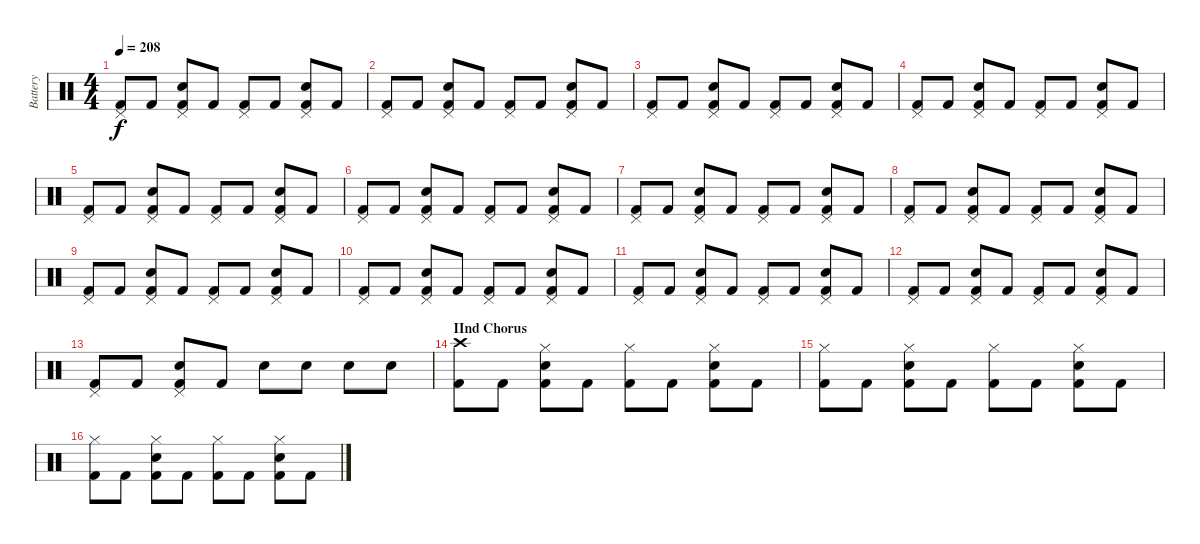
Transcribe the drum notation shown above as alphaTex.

\track ("Battery" "Battery") {instrument percussion}
\staff {score}
\articulation defaults
\ts (4 4)
\tempo 208
\clef neutral
\ks c
("Pedal Hi-Hat (hit)" "Kick (hit) 2").8{dy f} "Kick (hit) 2".8 ("Pedal Hi-Hat (hit)" "Electric Snare (hit)" "Kick (hit) 2").8 "Kick (hit) 2".8 ("Pedal Hi-Hat (hit)" "Kick (hit) 2").8 "Kick (hit) 2".8 ("Pedal Hi-Hat (hit)" "Electric Snare (hit)" "Kick (hit) 2").8 "Kick (hit) 2".8 |
("Pedal Hi-Hat (hit)" "Kick (hit) 2").8 "Kick (hit) 2".8 ("Pedal Hi-Hat (hit)" "Electric Snare (hit)" "Kick (hit) 2").8 "Kick (hit) 2".8 ("Pedal Hi-Hat (hit)" "Kick (hit) 2").8 "Kick (hit) 2".8 ("Pedal Hi-Hat (hit)" "Electric Snare (hit)" "Kick (hit) 2").8 "Kick (hit) 2".8 |
("Pedal Hi-Hat (hit)" "Kick (hit) 2").8 "Kick (hit) 2".8 ("Pedal Hi-Hat (hit)" "Electric Snare (hit)" "Kick (hit) 2").8 "Kick (hit) 2".8 ("Pedal Hi-Hat (hit)" "Kick (hit) 2").8 "Kick (hit) 2".8 ("Pedal Hi-Hat (hit)" "Electric Snare (hit)" "Kick (hit) 2").8 "Kick (hit) 2".8 |
("Pedal Hi-Hat (hit)" "Kick (hit) 2").8 "Kick (hit) 2".8 ("Pedal Hi-Hat (hit)" "Electric Snare (hit)" "Kick (hit) 2").8 "Kick (hit) 2".8 ("Pedal Hi-Hat (hit)" "Kick (hit) 2").8 "Kick (hit) 2".8 ("Pedal Hi-Hat (hit)" "Electric Snare (hit)" "Kick (hit) 2").8 "Kick (hit) 2".8 |
("Pedal Hi-Hat (hit)" "Kick (hit) 2").8 "Kick (hit) 2".8 ("Pedal Hi-Hat (hit)" "Electric Snare (hit)" "Kick (hit) 2").8 "Kick (hit) 2".8 ("Pedal Hi-Hat (hit)" "Kick (hit) 2").8 "Kick (hit) 2".8 ("Pedal Hi-Hat (hit)" "Electric Snare (hit)" "Kick (hit) 2").8 "Kick (hit) 2".8 |
("Pedal Hi-Hat (hit)" "Kick (hit) 2").8 "Kick (hit) 2".8 ("Pedal Hi-Hat (hit)" "Electric Snare (hit)" "Kick (hit) 2").8 "Kick (hit) 2".8 ("Pedal Hi-Hat (hit)" "Kick (hit) 2").8 "Kick (hit) 2".8 ("Pedal Hi-Hat (hit)" "Electric Snare (hit)" "Kick (hit) 2").8 "Kick (hit) 2".8 |
("Pedal Hi-Hat (hit)" "Kick (hit) 2").8 "Kick (hit) 2".8 ("Pedal Hi-Hat (hit)" "Electric Snare (hit)" "Kick (hit) 2").8 "Kick (hit) 2".8 ("Pedal Hi-Hat (hit)" "Kick (hit) 2").8 "Kick (hit) 2".8 ("Pedal Hi-Hat (hit)" "Electric Snare (hit)" "Kick (hit) 2").8 "Kick (hit) 2".8 |
("Pedal Hi-Hat (hit)" "Kick (hit) 2").8 "Kick (hit) 2".8 ("Pedal Hi-Hat (hit)" "Electric Snare (hit)" "Kick (hit) 2").8 "Kick (hit) 2".8 ("Pedal Hi-Hat (hit)" "Kick (hit) 2").8 "Kick (hit) 2".8 ("Pedal Hi-Hat (hit)" "Electric Snare (hit)" "Kick (hit) 2").8 "Kick (hit) 2".8 |
("Pedal Hi-Hat (hit)" "Kick (hit) 2").8 "Kick (hit) 2".8 ("Pedal Hi-Hat (hit)" "Electric Snare (hit)" "Kick (hit) 2").8 "Kick (hit) 2".8 ("Pedal Hi-Hat (hit)" "Kick (hit) 2").8 "Kick (hit) 2".8 ("Pedal Hi-Hat (hit)" "Electric Snare (hit)" "Kick (hit) 2").8 "Kick (hit) 2".8 |
("Pedal Hi-Hat (hit)" "Kick (hit) 2").8 "Kick (hit) 2".8 ("Pedal Hi-Hat (hit)" "Electric Snare (hit)" "Kick (hit) 2").8 "Kick (hit) 2".8 ("Pedal Hi-Hat (hit)" "Kick (hit) 2").8 "Kick (hit) 2".8 ("Pedal Hi-Hat (hit)" "Electric Snare (hit)" "Kick (hit) 2").8 "Kick (hit) 2".8 |
("Pedal Hi-Hat (hit)" "Kick (hit) 2").8 "Kick (hit) 2".8 ("Pedal Hi-Hat (hit)" "Electric Snare (hit)" "Kick (hit) 2").8 "Kick (hit) 2".8 ("Pedal Hi-Hat (hit)" "Kick (hit) 2").8 "Kick (hit) 2".8 ("Pedal Hi-Hat (hit)" "Electric Snare (hit)" "Kick (hit) 2").8 "Kick (hit) 2".8 |
("Pedal Hi-Hat (hit)" "Kick (hit) 2").8 "Kick (hit) 2".8 ("Pedal Hi-Hat (hit)" "Electric Snare (hit)" "Kick (hit) 2").8 "Kick (hit) 2".8 ("Pedal Hi-Hat (hit)" "Kick (hit) 2").8 "Kick (hit) 2".8 ("Pedal Hi-Hat (hit)" "Electric Snare (hit)" "Kick (hit) 2").8 "Kick (hit) 2".8 |
("Pedal Hi-Hat (hit)" "Kick (hit) 2").8 "Kick (hit) 2".8 ("Pedal Hi-Hat (hit)" "Electric Snare (hit)" "Kick (hit) 2").8 "Kick (hit) 2".8 "Electric Snare (hit)".8 "Electric Snare (hit)".8 "Electric Snare (hit)".8 "Electric Snare (hit)".8 |
\section ("" "IInd Chorus")
("Crash high (hit)" "Kick (hit) 2").8 "Kick (hit) 2".8 ("Hi-Hat (closed)" "Electric Snare (hit)" "Kick (hit) 2").8 "Kick (hit) 2".8 ("Hi-Hat (closed)" "Kick (hit) 2").8 "Kick (hit) 2".8 ("Hi-Hat (closed)" "Electric Snare (hit)" "Kick (hit) 2").8 "Kick (hit) 2".8 |
("Hi-Hat (closed)" "Kick (hit) 2").8 "Kick (hit) 2".8 ("Hi-Hat (closed)" "Electric Snare (hit)" "Kick (hit) 2").8 "Kick (hit) 2".8 ("Hi-Hat (closed)" "Kick (hit) 2").8 "Kick (hit) 2".8 ("Hi-Hat (closed)" "Electric Snare (hit)" "Kick (hit) 2").8 "Kick (hit) 2".8 |
("Hi-Hat (closed)" "Kick (hit) 2").8 "Kick (hit) 2".8 ("Hi-Hat (closed)" "Electric Snare (hit)" "Kick (hit) 2").8 "Kick (hit) 2".8 ("Hi-Hat (closed)" "Kick (hit) 2").8 "Kick (hit) 2".8 ("Hi-Hat (closed)" "Electric Snare (hit)" "Kick (hit) 2").8 "Kick (hit) 2".8
